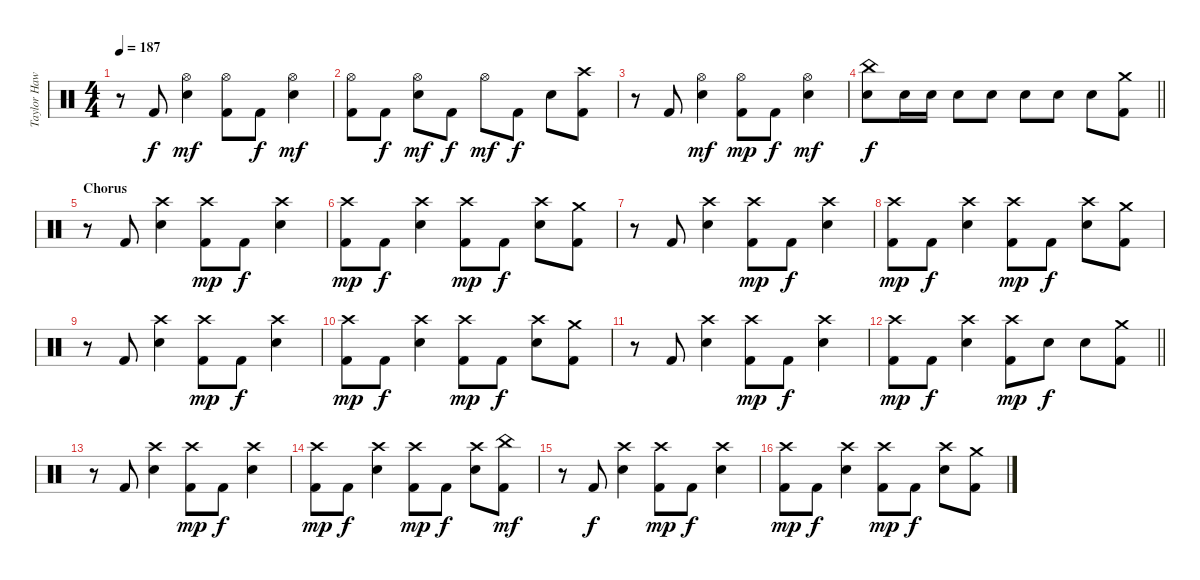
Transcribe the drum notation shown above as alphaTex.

\track ("Taylor Hawkins" "Taylor Haw") {instrument percussion}
\staff {score}
\articulation defaults
\ts (4 4)
\tempo 187
\clef neutral
\ks c
r.8{dy f} "Kick (hit) 2".8 ("Hi-Hat (open)" "Snare (hit) 2").4{dy mf} ("Hi-Hat (open)" "Kick (hit) 2").8 "Kick (hit) 2".8{dy f} ("Hi-Hat (open)" "Snare (hit) 2").4{dy mf} |
("Hi-Hat (open)" "Kick (hit) 2").8 "Kick (hit) 2".8{dy f} ("Hi-Hat (open)" "Snare (hit) 2").8{dy mf} "Kick (hit) 2".8{dy f} "Hi-Hat (open)".8{dy mf} "Kick (hit) 2".8{dy f} "Snare (hit) 2".8 ("Crash high (hit)" "Kick (hit) 2").8 |
r.8 "Kick (hit) 2".8 ("Hi-Hat (open)" "Snare (hit) 2").4{dy mf} ("Hi-Hat (open)" "Kick (hit) 2").8{dy mp} "Kick (hit) 2".8{dy f} ("Hi-Hat (open)" "Snare (hit) 2").4{dy mf} |
\barLineRight lightlight
("China (hit)" "Snare (hit) 2").8{dy f} "Snare (hit) 2".16 "Snare (hit) 2".16 "Snare (hit) 2".8 "Snare (hit) 2".8 "Snare (hit) 2".8 "Snare (hit) 2".8 "Snare (hit) 2".8 ("Crash medium (hit)" "Kick (hit) 2").8 |
\section ("" "Chorus")
r.8 "Kick (hit) 2".8 ("Crash high (hit)" "Snare (hit) 2").4 ("Crash high (hit)" "Kick (hit) 2").8{dy mp} "Kick (hit) 2".8{dy f} ("Crash high (hit)" "Snare (hit) 2").4 |
("Crash high (hit)" "Kick (hit) 2").8{dy mp} "Kick (hit) 2".8{dy f} ("Crash high (hit)" "Snare (hit) 2").4 ("Crash high (hit)" "Kick (hit) 2").8{dy mp} "Kick (hit) 2".8{dy f} ("Crash high (hit)" "Snare (hit) 2").8 ("Crash medium (hit)" "Kick (hit) 2").8 |
r.8 "Kick (hit) 2".8 ("Crash high (hit)" "Snare (hit) 2").4 ("Crash high (hit)" "Kick (hit) 2").8{dy mp} "Kick (hit) 2".8{dy f} ("Crash high (hit)" "Snare (hit) 2").4 |
("Crash high (hit)" "Kick (hit) 2").8{dy mp} "Kick (hit) 2".8{dy f} ("Crash high (hit)" "Snare (hit) 2").4 ("Crash high (hit)" "Kick (hit) 2").8{dy mp} "Kick (hit) 2".8{dy f} ("Crash high (hit)" "Snare (hit) 2").8 ("Crash medium (hit)" "Kick (hit) 2").8 |
r.8 "Kick (hit) 2".8 ("Crash high (hit)" "Snare (hit) 2").4 ("Crash high (hit)" "Kick (hit) 2").8{dy mp} "Kick (hit) 2".8{dy f} ("Crash high (hit)" "Snare (hit) 2").4 |
("Crash high (hit)" "Kick (hit) 2").8{dy mp} "Kick (hit) 2".8{dy f} ("Crash high (hit)" "Snare (hit) 2").4 ("Crash high (hit)" "Kick (hit) 2").8{dy mp} "Kick (hit) 2".8{dy f} ("Crash high (hit)" "Snare (hit) 2").8 ("Crash medium (hit)" "Kick (hit) 2").8 |
r.8 "Kick (hit) 2".8 ("Crash high (hit)" "Snare (hit) 2").4 ("Crash high (hit)" "Kick (hit) 2").8{dy mp} "Kick (hit) 2".8{dy f} ("Crash high (hit)" "Snare (hit) 2").4 |
\barLineRight lightlight
("Crash high (hit)" "Kick (hit) 2").8{dy mp} "Kick (hit) 2".8{dy f} ("Crash high (hit)" "Snare (hit) 2").4 ("Crash high (hit)" "Kick (hit) 2").8{dy mp} "Snare (hit) 2".8{dy f} "Snare (hit) 2".8 ("Crash medium (hit)" "Kick (hit) 2").8 |
r.8 "Kick (hit) 2".8 ("Crash high (hit)" "Snare (hit) 2").4 ("Crash high (hit)" "Kick (hit) 2").8{dy mp} "Kick (hit) 2".8{dy f} ("Crash high (hit)" "Snare (hit) 2").4 |
("Crash high (hit)" "Kick (hit) 2").8{dy mp} "Kick (hit) 2".8{dy f} ("Crash high (hit)" "Snare (hit) 2").4 ("Crash high (hit)" "Kick (hit) 2").8{dy mp} "Kick (hit) 2".8{dy f} ("Crash high (hit)" "Snare (hit) 2").8 ("China (hit)" "Kick (hit) 2").8{dy mf} |
r.8 "Kick (hit) 2".8{dy f} ("Crash high (hit)" "Snare (hit) 2").4 ("Crash high (hit)" "Kick (hit) 2").8{dy mp} "Kick (hit) 2".8{dy f} ("Crash high (hit)" "Snare (hit) 2").4 |
("Crash high (hit)" "Kick (hit) 2").8{dy mp} "Kick (hit) 2".8{dy f} ("Crash high (hit)" "Snare (hit) 2").4 ("Crash high (hit)" "Kick (hit) 2").8{dy mp} "Kick (hit) 2".8{dy f} ("Crash high (hit)" "Snare (hit) 2").8 ("Crash medium (hit)" "Kick (hit) 2").8
